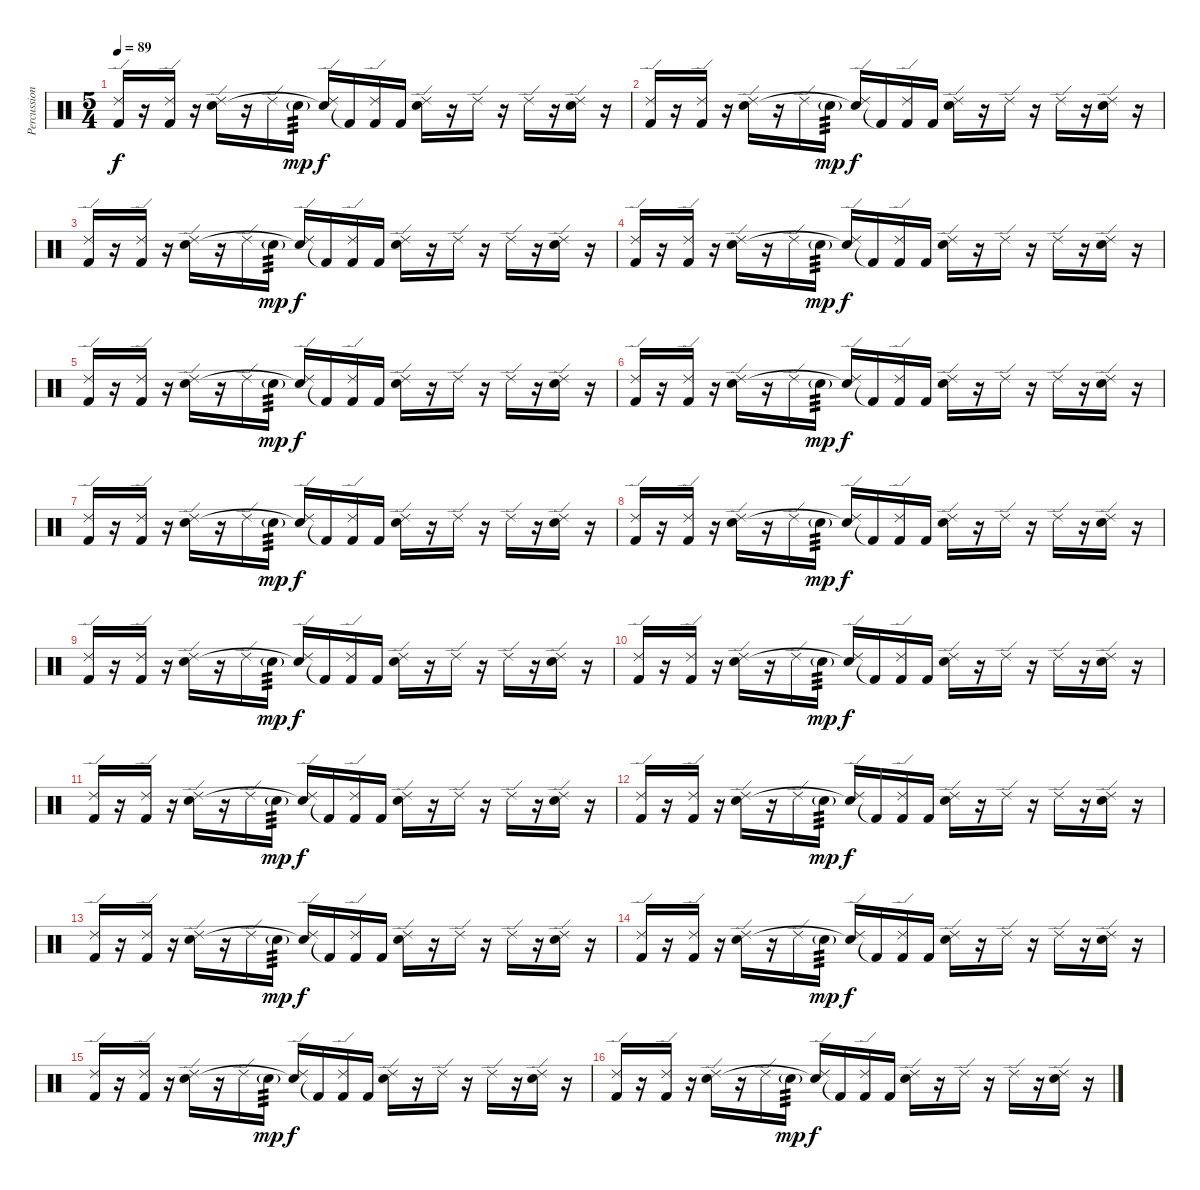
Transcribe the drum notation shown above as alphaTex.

\track ("Percussion" "Percussion") {instrument percussion}
\staff {score}
\articulation defaults
\ts (5 4)
\tempo 89
\clef neutral
\ks c
("Ride (edge) 2" "Kick (hit) 2").16{dy f} r.16 ("Ride (edge) 2" "Kick (hit) 2").16 r.16 ("Ride (edge) 2" "Snare (hit) 2").16 r.16 "Ride (edge) 2".16 "Snare (hit) 2"{g}.16{tp 3 dy mp} ("Ride (edge) 2" "Snare (hit)"{t}).16{dy f} "Kick (hit) 2"{t}.16 ("Ride (edge) 2" "Kick (hit) 2").16 "Kick (hit) 2".16 ("Ride (edge) 2" "Snare (hit) 2").16 r.16 "Ride (edge) 2".16 r.16 "Ride (edge) 2".16 r.16 ("Ride (edge) 2" "Snare (hit) 2").16 r.16 |
("Ride (edge) 2" "Kick (hit) 2").16 r.16 ("Ride (edge) 2" "Kick (hit) 2").16 r.16 ("Ride (edge) 2" "Snare (hit) 2").16 r.16 "Ride (edge) 2".16 "Snare (hit) 2"{g}.16{tp 3 dy mp} ("Ride (edge) 2" "Snare (hit)"{t}).16{dy f} "Kick (hit) 2"{t}.16 ("Ride (edge) 2" "Kick (hit) 2").16 "Kick (hit) 2".16 ("Ride (edge) 2" "Snare (hit) 2").16 r.16 "Ride (edge) 2".16 r.16 "Ride (edge) 2".16 r.16 ("Ride (edge) 2" "Snare (hit) 2").16 r.16 |
("Ride (edge) 2" "Kick (hit) 2").16 r.16 ("Ride (edge) 2" "Kick (hit) 2").16 r.16 ("Ride (edge) 2" "Snare (hit) 2").16 r.16 "Ride (edge) 2".16 "Snare (hit) 2"{g}.16{tp 3 dy mp} ("Ride (edge) 2" "Snare (hit)"{t}).16{dy f} "Kick (hit) 2"{t}.16 ("Ride (edge) 2" "Kick (hit) 2").16 "Kick (hit) 2".16 ("Ride (edge) 2" "Snare (hit) 2").16 r.16 "Ride (edge) 2".16 r.16 "Ride (edge) 2".16 r.16 ("Ride (edge) 2" "Snare (hit) 2").16 r.16 |
("Ride (edge) 2" "Kick (hit) 2").16 r.16 ("Ride (edge) 2" "Kick (hit) 2").16 r.16 ("Ride (edge) 2" "Snare (hit) 2").16 r.16 "Ride (edge) 2".16 "Snare (hit) 2"{g}.16{tp 3 dy mp} ("Ride (edge) 2" "Snare (hit)"{t}).16{dy f} "Kick (hit) 2"{t}.16 ("Ride (edge) 2" "Kick (hit) 2").16 "Kick (hit) 2".16 ("Ride (edge) 2" "Snare (hit) 2").16 r.16 "Ride (edge) 2".16 r.16 "Ride (edge) 2".16 r.16 ("Ride (edge) 2" "Snare (hit) 2").16 r.16 |
("Ride (edge) 2" "Kick (hit) 2").16 r.16 ("Ride (edge) 2" "Kick (hit) 2").16 r.16 ("Ride (edge) 2" "Snare (hit) 2").16 r.16 "Ride (edge) 2".16 "Snare (hit) 2"{g}.16{tp 3 dy mp} ("Ride (edge) 2" "Snare (hit)"{t}).16{dy f} "Kick (hit) 2"{t}.16 ("Ride (edge) 2" "Kick (hit) 2").16 "Kick (hit) 2".16 ("Ride (edge) 2" "Snare (hit) 2").16 r.16 "Ride (edge) 2".16 r.16 "Ride (edge) 2".16 r.16 ("Ride (edge) 2" "Snare (hit) 2").16 r.16 |
("Ride (edge) 2" "Kick (hit) 2").16 r.16 ("Ride (edge) 2" "Kick (hit) 2").16 r.16 ("Ride (edge) 2" "Snare (hit) 2").16 r.16 "Ride (edge) 2".16 "Snare (hit) 2"{g}.16{tp 3 dy mp} ("Ride (edge) 2" "Snare (hit)"{t}).16{dy f} "Kick (hit) 2"{t}.16 ("Ride (edge) 2" "Kick (hit) 2").16 "Kick (hit) 2".16 ("Ride (edge) 2" "Snare (hit) 2").16 r.16 "Ride (edge) 2".16 r.16 "Ride (edge) 2".16 r.16 ("Ride (edge) 2" "Snare (hit) 2").16 r.16 |
("Ride (edge) 2" "Kick (hit) 2").16 r.16 ("Ride (edge) 2" "Kick (hit) 2").16 r.16 ("Ride (edge) 2" "Snare (hit) 2").16 r.16 "Ride (edge) 2".16 "Snare (hit) 2"{g}.16{tp 3 dy mp} ("Ride (edge) 2" "Snare (hit)"{t}).16{dy f} "Kick (hit) 2"{t}.16 ("Ride (edge) 2" "Kick (hit) 2").16 "Kick (hit) 2".16 ("Ride (edge) 2" "Snare (hit) 2").16 r.16 "Ride (edge) 2".16 r.16 "Ride (edge) 2".16 r.16 ("Ride (edge) 2" "Snare (hit) 2").16 r.16 |
("Ride (edge) 2" "Kick (hit) 2").16 r.16 ("Ride (edge) 2" "Kick (hit) 2").16 r.16 ("Ride (edge) 2" "Snare (hit) 2").16 r.16 "Ride (edge) 2".16 "Snare (hit) 2"{g}.16{tp 3 dy mp} ("Ride (edge) 2" "Snare (hit)"{t}).16{dy f} "Kick (hit) 2"{t}.16 ("Ride (edge) 2" "Kick (hit) 2").16 "Kick (hit) 2".16 ("Ride (edge) 2" "Snare (hit) 2").16 r.16 "Ride (edge) 2".16 r.16 "Ride (edge) 2".16 r.16 ("Ride (edge) 2" "Snare (hit) 2").16 r.16 |
("Ride (edge) 2" "Kick (hit) 2").16{volume 10} r.16 ("Ride (edge) 2" "Kick (hit) 2").16 r.16 ("Ride (edge) 2" "Snare (hit) 2").16 r.16 "Ride (edge) 2".16 "Snare (hit) 2"{g}.16{tp 3 dy mp} ("Ride (edge) 2" "Snare (hit)"{t}).16{dy f} "Kick (hit) 2"{t}.16 ("Ride (edge) 2" "Kick (hit) 2").16 "Kick (hit) 2".16 ("Ride (edge) 2" "Snare (hit) 2").16 r.16 "Ride (edge) 2".16 r.16 "Ride (edge) 2".16 r.16 ("Ride (edge) 2" "Snare (hit) 2").16 r.16 |
("Ride (edge) 2" "Kick (hit) 2").16 r.16 ("Ride (edge) 2" "Kick (hit) 2").16 r.16 ("Ride (edge) 2" "Snare (hit) 2").16 r.16 "Ride (edge) 2".16 "Snare (hit) 2"{g}.16{tp 3 dy mp} ("Ride (edge) 2" "Snare (hit)"{t}).16{dy f} "Kick (hit) 2"{t}.16 ("Ride (edge) 2" "Kick (hit) 2").16 "Kick (hit) 2".16 ("Ride (edge) 2" "Snare (hit) 2").16 r.16 "Ride (edge) 2".16 r.16 "Ride (edge) 2".16 r.16 ("Ride (edge) 2" "Snare (hit) 2").16 r.16 |
("Ride (edge) 2" "Kick (hit) 2").16 r.16 ("Ride (edge) 2" "Kick (hit) 2").16 r.16 ("Ride (edge) 2" "Snare (hit) 2").16 r.16 "Ride (edge) 2".16 "Snare (hit) 2"{g}.16{tp 3 dy mp} ("Ride (edge) 2" "Snare (hit)"{t}).16{dy f} "Kick (hit) 2"{t}.16 ("Ride (edge) 2" "Kick (hit) 2").16 "Kick (hit) 2".16 ("Ride (edge) 2" "Snare (hit) 2").16 r.16 "Ride (edge) 2".16 r.16 "Ride (edge) 2".16 r.16 ("Ride (edge) 2" "Snare (hit) 2").16 r.16 |
("Ride (edge) 2" "Kick (hit) 2").16 r.16 ("Ride (edge) 2" "Kick (hit) 2").16 r.16 ("Ride (edge) 2" "Snare (hit) 2").16 r.16 "Ride (edge) 2".16 "Snare (hit) 2"{g}.16{tp 3 dy mp} ("Ride (edge) 2" "Snare (hit)"{t}).16{dy f} "Kick (hit) 2"{t}.16 ("Ride (edge) 2" "Kick (hit) 2").16 "Kick (hit) 2".16 ("Ride (edge) 2" "Snare (hit) 2").16 r.16 "Ride (edge) 2".16 r.16 "Ride (edge) 2".16 r.16 ("Ride (edge) 2" "Snare (hit) 2").16 r.16 |
("Ride (edge) 2" "Kick (hit) 2").16{volume 6} r.16 ("Ride (edge) 2" "Kick (hit) 2").16 r.16 ("Ride (edge) 2" "Snare (hit) 2").16 r.16 "Ride (edge) 2".16 "Snare (hit) 2"{g}.16{tp 3 dy mp} ("Ride (edge) 2" "Snare (hit)"{t}).16{dy f} "Kick (hit) 2"{t}.16 ("Ride (edge) 2" "Kick (hit) 2").16 "Kick (hit) 2".16 ("Ride (edge) 2" "Snare (hit) 2").16 r.16 "Ride (edge) 2".16 r.16 "Ride (edge) 2".16 r.16 ("Ride (edge) 2" "Snare (hit) 2").16 r.16 |
("Ride (edge) 2" "Kick (hit) 2").16 r.16 ("Ride (edge) 2" "Kick (hit) 2").16 r.16 ("Ride (edge) 2" "Snare (hit) 2").16 r.16 "Ride (edge) 2".16 "Snare (hit) 2"{g}.16{tp 3 dy mp} ("Ride (edge) 2" "Snare (hit)"{t}).16{dy f} "Kick (hit) 2"{t}.16 ("Ride (edge) 2" "Kick (hit) 2").16 "Kick (hit) 2".16 ("Ride (edge) 2" "Snare (hit) 2").16 r.16 "Ride (edge) 2".16 r.16 "Ride (edge) 2".16 r.16 ("Ride (edge) 2" "Snare (hit) 2").16 r.16 |
("Ride (edge) 2" "Kick (hit) 2").16 r.16 ("Ride (edge) 2" "Kick (hit) 2").16 r.16 ("Ride (edge) 2" "Snare (hit) 2").16 r.16 "Ride (edge) 2".16 "Snare (hit) 2"{g}.16{tp 3 dy mp} ("Ride (edge) 2" "Snare (hit)"{t}).16{dy f} "Kick (hit) 2"{t}.16 ("Ride (edge) 2" "Kick (hit) 2").16 "Kick (hit) 2".16 ("Ride (edge) 2" "Snare (hit) 2").16 r.16 "Ride (edge) 2".16 r.16 "Ride (edge) 2".16 r.16 ("Ride (edge) 2" "Snare (hit) 2").16 r.16 |
("Ride (edge) 2" "Kick (hit) 2").16 r.16 ("Ride (edge) 2" "Kick (hit) 2").16 r.16 ("Ride (edge) 2" "Snare (hit) 2").16 r.16 "Ride (edge) 2".16 "Snare (hit) 2"{g}.16{tp 3 dy mp} ("Ride (edge) 2" "Snare (hit)"{t}).16{dy f} "Kick (hit) 2"{t}.16 ("Ride (edge) 2" "Kick (hit) 2").16 "Kick (hit) 2".16 ("Ride (edge) 2" "Snare (hit) 2").16 r.16 "Ride (edge) 2".16 r.16 "Ride (edge) 2".16 r.16 ("Ride (edge) 2" "Snare (hit) 2").16 r.16
